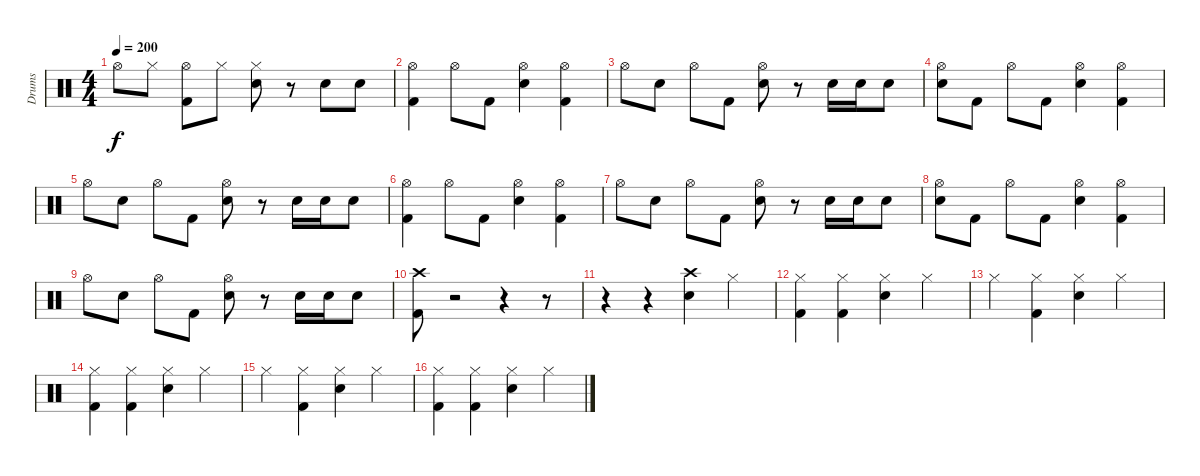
\track ("Drums" "Drums") {instrument percussion}
\staff {score}
\articulation defaults
\ts (4 4)
\tempo 200
\clef neutral
\ks c "Hi-Hat (open)".8{dy f} "Hi-Hat (closed)".8
("Hi-Hat (open)" "Kick (hit) 2").8 "Hi-Hat (closed)".8 ("Hi-Hat (closed)" "Electric Snare (hit)").8 r.8 "Electric Snare (hit)".8 "Electric Snare (hit)".8 |
("Hi-Hat (open)" "Kick (hit) 2").4 "Hi-Hat (open)".8 "Kick (hit) 2".8 ("Hi-Hat (open)" "Snare (hit) 2").4 ("Hi-Hat (open)" "Kick (hit) 2").4 |
"Hi-Hat (open)".8 "Electric Snare (hit)".8 "Hi-Hat (open)".8 "Kick (hit) 2".8 ("Hi-Hat (open)" "Electric Snare (hit)").8 r.8 "Electric Snare (hit)".16 "Electric Snare (hit)".16 "Electric Snare (hit)".8 |
("Hi-Hat (open)" "Electric Snare (hit)").8 "Kick (hit) 2".8 "Hi-Hat (open)".8 "Kick (hit) 2".8 ("Hi-Hat (open)" "Snare (hit) 2").4 ("Hi-Hat (open)" "Kick (hit) 2").4 |
"Hi-Hat (open)".8 "Electric Snare (hit)".8 "Hi-Hat (open)".8 "Kick (hit) 2".8 ("Hi-Hat (open)" "Electric Snare (hit)").8 r.8 "Electric Snare (hit)".16 "Electric Snare (hit)".16 "Electric Snare (hit)".8 |
("Hi-Hat (open)" "Kick (hit) 2").4 "Hi-Hat (open)".8 "Kick (hit) 2".8 ("Hi-Hat (open)" "Snare (hit) 2").4 ("Hi-Hat (open)" "Kick (hit) 2").4 |
"Hi-Hat (open)".8 "Electric Snare (hit)".8 "Hi-Hat (open)".8 "Kick (hit) 2".8 ("Hi-Hat (open)" "Electric Snare (hit)").8 r.8 "Electric Snare (hit)".16 "Electric Snare (hit)".16 "Electric Snare (hit)".8 |
("Hi-Hat (open)" "Electric Snare (hit)").8 "Kick (hit) 2".8 "Hi-Hat (open)".8 "Kick (hit) 2".8 ("Hi-Hat (open)" "Snare (hit) 2").4 ("Hi-Hat (open)" "Kick (hit) 2").4 |
"Hi-Hat (open)".8 "Electric Snare (hit)".8 "Hi-Hat (open)".8 "Kick (hit) 2".8 ("Hi-Hat (open)" "Electric Snare (hit)").8 r.8 "Electric Snare (hit)".16 "Electric Snare (hit)".16 "Electric Snare (hit)".8 |
("Crash high (hit)" "Kick (hit) 2").8 r.2 r.4 r.8 |
r.4 r.4 ("Crash high (hit)" "Electric Snare (hit)").4 "Hi-Hat (closed)".4 |
("Hi-Hat (closed)" "Kick (hit) 2").4 ("Hi-Hat (closed)" "Kick (hit) 2").4 ("Hi-Hat (closed)" "Electric Snare (hit)").4 "Hi-Hat (closed)".4 |
"Hi-Hat (closed)".4 ("Hi-Hat (closed)" "Kick (hit) 2").4 ("Hi-Hat (closed)" "Electric Snare (hit)").4 "Hi-Hat (closed)".4 |
("Hi-Hat (closed)" "Kick (hit) 2").4 ("Hi-Hat (closed)" "Kick (hit) 2").4 ("Hi-Hat (closed)" "Electric Snare (hit)").4 "Hi-Hat (closed)".4 |
"Hi-Hat (closed)".4 ("Hi-Hat (closed)" "Kick (hit) 2").4 ("Hi-Hat (closed)" "Electric Snare (hit)").4 "Hi-Hat (closed)".4 |
("Hi-Hat (closed)" "Kick (hit) 2").4 ("Hi-Hat (closed)" "Kick (hit) 2").4 ("Hi-Hat (closed)" "Electric Snare (hit)").4 "Hi-Hat (closed)".4
